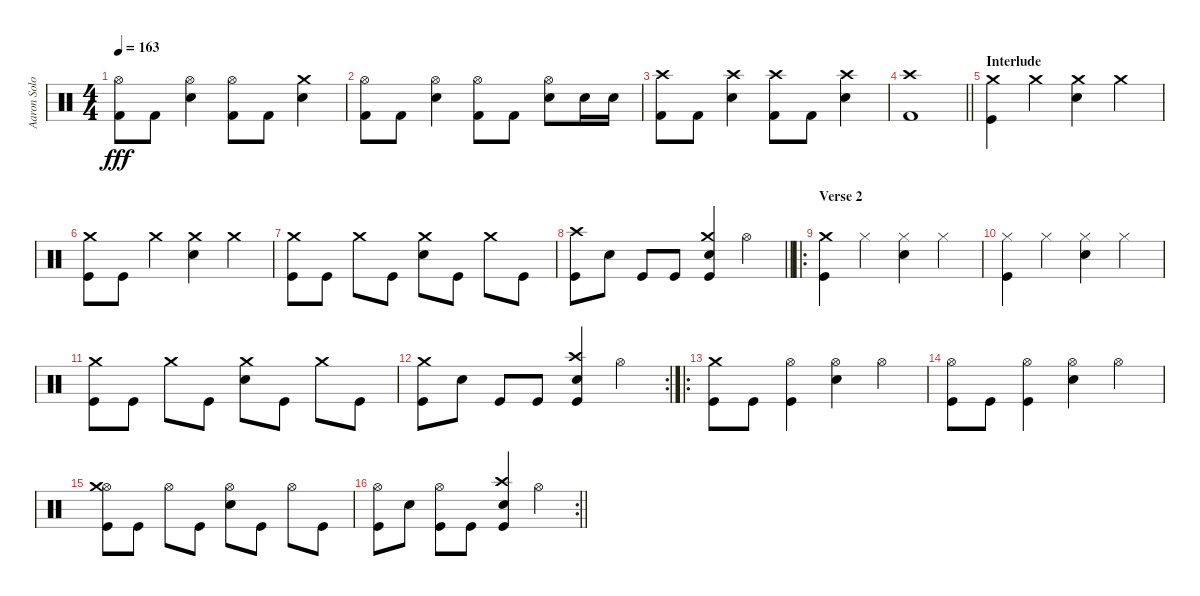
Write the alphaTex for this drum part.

\track ("Aaron Solowoniuk - Schlagzeug" "Aaron Solo") {instrument percussion}
\staff {score}
\articulation defaults
\ts (4 4)
\tempo 163
\clef neutral
\ks c
("Hi-Hat (open)" "Kick (hit) 2").8{dy fff} "Kick (hit) 2".8 ("Hi-Hat (open)" "Electric Snare (hit)").4 ("Hi-Hat (open)" "Kick (hit) 2").8 "Kick (hit) 2".8 ("Crash medium (hit)" "Electric Snare (hit)").4 |
("Hi-Hat (open)" "Kick (hit) 2").8 "Kick (hit) 2".8 ("Hi-Hat (open)" "Electric Snare (hit)").4 ("Hi-Hat (open)" "Kick (hit) 2").8 "Kick (hit) 2".8 ("Hi-Hat (open)" "Electric Snare (hit)").8 "Electric Snare (hit)".16 "Electric Snare (hit)".16 |
("Crash high (hit)" "Kick (hit) 2").8 "Kick (hit) 2".8 ("Crash high (hit)" "Electric Snare (hit)").4 ("Crash high (hit)" "Kick (hit) 2").8 "Kick (hit) 2".8 ("Crash high (hit)" "Electric Snare (hit)").4 |
\barLineRight lightlight
("Crash high (hit)" "Kick (hit) 2").1 |
\section ("" "Interlude")
("Crash medium (hit)" "Kick (hit)").4 "Crash medium (hit)".4 ("Crash medium (hit)" "Electric Snare (hit)").4 "Crash medium (hit)".4 |
("Crash medium (hit)" "Kick (hit)").8 "Kick (hit)".8 "Crash medium (hit)".4 ("Crash medium (hit)" "Electric Snare (hit)").4 "Crash medium (hit)".4 |
("Crash medium (hit)" "Kick (hit)").8 "Kick (hit)".8 "Crash medium (hit)".8 "Kick (hit)".8 ("Crash medium (hit)" "Electric Snare (hit)").8 "Kick (hit)".8 "Crash medium (hit)".8 "Kick (hit)".8 |
\barLineRight lightlight
("Kick (hit)" "Crash high (hit)").8 "Electric Snare (hit)".8 "Kick (hit)".8 "Kick (hit)".8 ("Kick (hit)" "Electric Snare (hit)" "Crash medium (hit)").4 "Hi-Hat (open)".4 |
\ro
\section ("" "Verse 2")
("Crash medium (hit)" "Kick (hit)").4 "Hi-Hat (closed)".4 ("Hi-Hat (closed)" "Electric Snare (hit)").4 "Hi-Hat (closed)".4 |
("Hi-Hat (closed)" "Kick (hit)").4 "Hi-Hat (closed)".4 ("Hi-Hat (closed)" "Electric Snare (hit)").4 "Hi-Hat (closed)".4 |
("Crash medium (hit)" "Kick (hit)").8 "Kick (hit)".8 "Crash medium (hit)".8 "Kick (hit)".8 ("Crash medium (hit)" "Electric Snare (hit)").8 "Kick (hit)".8 "Crash medium (hit)".8 "Kick (hit)".8 |
\rc 2
("Crash medium (hit)" "Kick (hit)").8 "Electric Snare (hit)".8 "Kick (hit)".8 "Kick (hit)".8 ("Kick (hit)" "Electric Snare (hit)" "Crash high (hit)").4 "Hi-Hat (open)".4 |
\ro
("Crash medium (hit)" "Kick (hit)").8 "Kick (hit)".8 ("Hi-Hat (open)" "Kick (hit)").4 ("Hi-Hat (open)" "Electric Snare (hit)").4 "Hi-Hat (open)".4 |
("Hi-Hat (open)" "Kick (hit)").8 "Kick (hit)".8 ("Hi-Hat (open)" "Kick (hit)").4 ("Hi-Hat (open)" "Electric Snare (hit)").4 "Hi-Hat (open)".4 |
("Hi-Hat (open)" "Crash medium (hit)" "Kick (hit)").8 "Kick (hit)".8 "Hi-Hat (open)".8 "Kick (hit)".8 ("Hi-Hat (open)" "Electric Snare (hit)").8 "Kick (hit)".8 "Hi-Hat (open)".8 "Kick (hit)".8 |
\rc 2
\barLineRight lightlight
("Hi-Hat (open)" "Kick (hit)").8 "Electric Snare (hit)".8 ("Hi-Hat (open)" "Kick (hit)").8 "Kick (hit)".8 ("Kick (hit)" "Electric Snare (hit)" "Crash high (hit)").4 "Hi-Hat (open)".4
